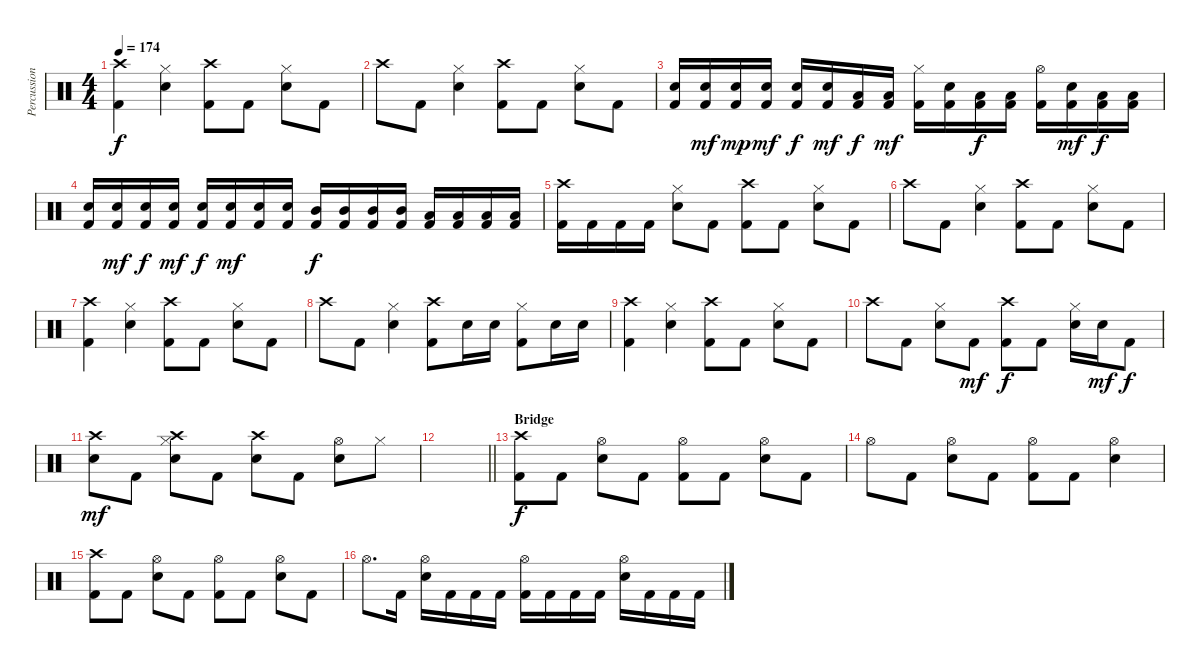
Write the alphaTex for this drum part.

\track ("Percussion" "Percussion") {instrument percussion}
\staff {score}
\articulation defaults
\ts (4 4)
\tempo 174
\clef neutral
\ks c
("Crash high (hit)" "Kick (hit) 2").4{dy f} ("Hi-Hat (closed)" "Electric Snare (hit)").4 ("Crash high (hit)" "Kick (hit) 2").8 "Kick (hit) 2".8 ("Hi-Hat (closed)" "Electric Snare (hit)").8 "Kick (hit) 2".8 |
"Crash high (hit)".8 "Kick (hit) 2".8 ("Hi-Hat (closed)" "Electric Snare (hit)").4 ("Crash high (hit)" "Kick (hit) 2").8 "Kick (hit) 2".8 ("Hi-Hat (closed)" "Electric Snare (hit)").8 "Kick (hit) 2".8 |
("Electric Snare (hit)" "Kick (hit) 2").16 ("Electric Snare (hit)" "Kick (hit) 2").16{dy mf} ("Electric Snare (hit)" "Kick (hit) 2").16{dy mp} ("Electric Snare (hit)" "Kick (hit) 2").16{dy mf} ("Electric Snare (hit)" "Kick (hit) 2").16{dy f} ("Electric Snare (hit)" "Kick (hit) 2").16{dy mf} ("Low Tom (hit)" "Kick (hit) 2").16{dy f} ("Low Tom (hit)" "Kick (hit) 2").16{dy mf} ("Hi-Hat (closed)" "Kick (hit) 2").16 ("Electric Snare (hit)" "Kick (hit) 2").16 ("Low Tom (hit)" "Kick (hit) 2").16{dy f} ("Low Tom (hit)" "Kick (hit) 2").16 ("Hi-Hat (open)" "Kick (hit) 2").16 ("Electric Snare (hit)" "Kick (hit) 2").16{dy mf} ("Low Tom (hit)" "Kick (hit) 2").16{dy f} ("Low Tom (hit)" "Kick (hit) 2").16 |
("Electric Snare (hit)" "Kick (hit) 2").16 ("Electric Snare (hit)" "Kick (hit) 2").16{dy mf} ("Electric Snare (hit)" "Kick (hit) 2").16{dy f} ("Electric Snare (hit)" "Kick (hit) 2").16{dy mf} ("Electric Snare (hit)" "Kick (hit) 2").16{dy f} ("Electric Snare (hit)" "Kick (hit) 2").16{dy mf} ("Electric Snare (hit)" "Kick (hit) 2").16 ("Electric Snare (hit)" "Kick (hit) 2").16 ("Mid Tom (hit)" "Kick (hit) 2").16{dy f} ("Mid Tom (hit)" "Kick (hit) 2").16 ("Mid Tom (hit)" "Kick (hit) 2").16 ("Mid Tom (hit)" "Kick (hit) 2").16 ("Low Tom (hit)" "Kick (hit) 2").16 ("Low Tom (hit)" "Kick (hit) 2").16 ("Low Tom (hit)" "Kick (hit) 2").16 ("Low Tom (hit)" "Kick (hit) 2").16 |
("Crash high (hit)" "Kick (hit) 2").16 "Kick (hit) 2".16 "Kick (hit) 2".16 "Kick (hit) 2".16 ("Hi-Hat (closed)" "Electric Snare (hit)").8 "Kick (hit) 2".8 ("Crash high (hit)" "Kick (hit) 2").8 "Kick (hit) 2".8 ("Hi-Hat (closed)" "Electric Snare (hit)").8 "Kick (hit) 2".8 |
"Crash high (hit)".8 "Kick (hit) 2".8 ("Hi-Hat (closed)" "Electric Snare (hit)").4 ("Crash high (hit)" "Kick (hit) 2").8 "Kick (hit) 2".8 ("Hi-Hat (closed)" "Electric Snare (hit)").8 "Kick (hit) 2".8 |
("Crash high (hit)" "Kick (hit) 2").4 ("Hi-Hat (closed)" "Electric Snare (hit)").4 ("Crash high (hit)" "Kick (hit) 2").8 "Kick (hit) 2".8 ("Hi-Hat (closed)" "Electric Snare (hit)").8 "Kick (hit) 2".8 |
"Crash high (hit)".8 "Kick (hit) 2".8 ("Hi-Hat (closed)" "Electric Snare (hit)").4 ("Crash high (hit)" "Kick (hit) 2").8 "Electric Snare (hit)".16 "Electric Snare (hit)".16 ("Hi-Hat (closed)" "Kick (hit) 2").8 "Electric Snare (hit)".16 "Electric Snare (hit)".16 |
("Crash high (hit)" "Kick (hit) 2").4 ("Hi-Hat (closed)" "Electric Snare (hit)").4 ("Crash high (hit)" "Kick (hit) 2").8 "Kick (hit) 2".8 ("Hi-Hat (closed)" "Electric Snare (hit)").8 "Kick (hit) 2".8 |
"Crash high (hit)".8 "Kick (hit) 2".8 ("Hi-Hat (closed)" "Electric Snare (hit)").8 "Kick (hit) 2".8{dy mf} ("Crash high (hit)" "Kick (hit) 2").8{dy f} "Kick (hit) 2".8 ("Hi-Hat (closed)" "Electric Snare (hit)").16 "Electric Snare (hit)".16{dy mf} "Kick (hit) 2".8{dy f} |
("Crash high (hit)" "Electric Snare (hit)").8{dy mf} "Kick (hit) 2".8 ("Crash high (hit)" "Hi-Hat (closed)" "Electric Snare (hit)").8 "Kick (hit) 2".8 ("Crash high (hit)" "Electric Snare (hit)").8 "Kick (hit) 2".8 ("Hi-Hat (open)" "Electric Snare (hit)").8 "Hi-Hat (closed)".8 |
\barLineRight lightlight
|
\section ("" "Bridge")
("Crash high (hit)" "Kick (hit) 2").8{dy f} "Kick (hit) 2".8 ("Hi-Hat (open)" "Electric Snare (hit)").8 "Kick (hit) 2".8 ("Hi-Hat (open)" "Kick (hit) 2").8 "Kick (hit) 2".8 ("Hi-Hat (open)" "Electric Snare (hit)").8 "Kick (hit) 2".8 |
"Hi-Hat (open)".8 "Kick (hit) 2".8 ("Hi-Hat (open)" "Electric Snare (hit)").8 "Kick (hit) 2".8 ("Hi-Hat (open)" "Kick (hit) 2").8 "Kick (hit) 2".8 ("Hi-Hat (open)" "Electric Snare (hit)").4 |
("Crash high (hit)" "Kick (hit) 2").8 "Kick (hit) 2".8 ("Hi-Hat (open)" "Electric Snare (hit)").8 "Kick (hit) 2".8 ("Hi-Hat (open)" "Kick (hit) 2").8 "Kick (hit) 2".8 ("Hi-Hat (open)" "Electric Snare (hit)").8 "Kick (hit) 2".8 |
"Hi-Hat (open)".8{d} "Kick (hit) 2".16 ("Hi-Hat (open)" "Electric Snare (hit)").16 "Kick (hit) 2".16 "Kick (hit) 2".16 "Kick (hit) 2".16 ("Hi-Hat (open)" "Kick (hit) 2").16 "Kick (hit) 2".16 "Kick (hit) 2".16 "Kick (hit) 2".16 ("Hi-Hat (open)" "Electric Snare (hit)").16 "Kick (hit) 2".16 "Kick (hit) 2".16 "Kick (hit) 2".16
